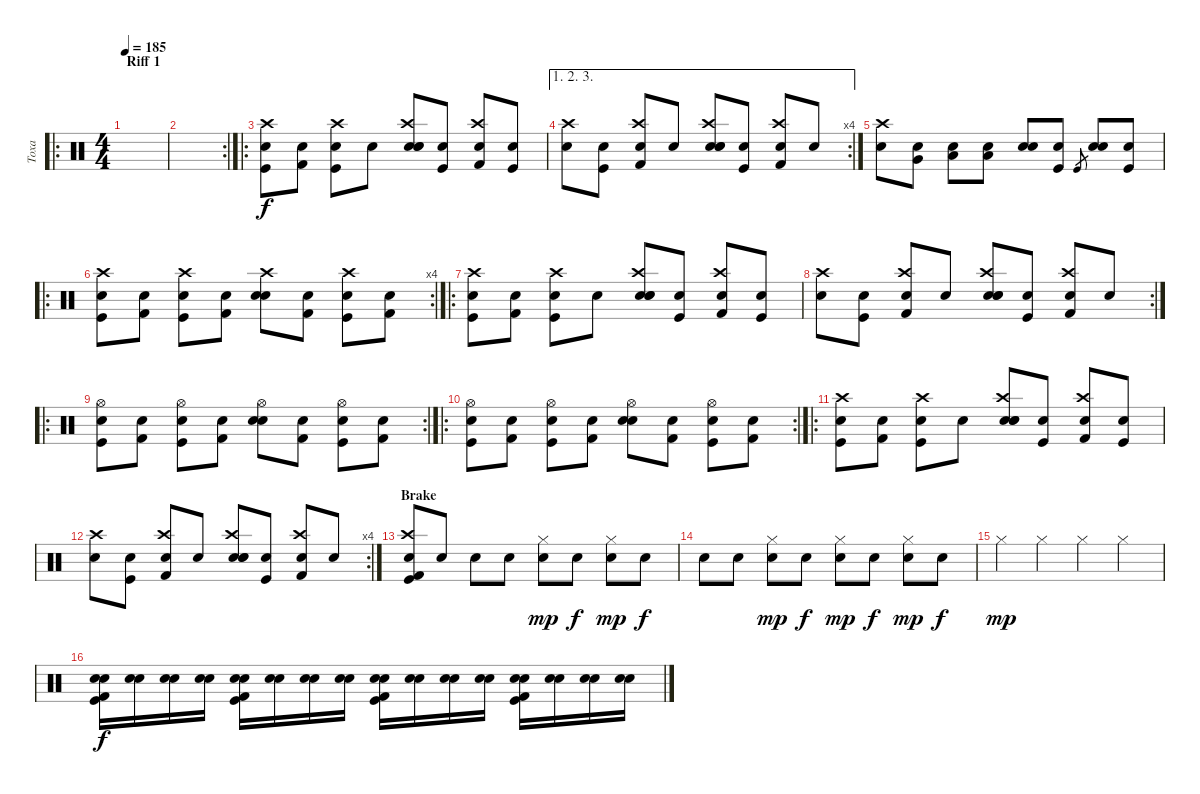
\track ("Toxa" "Toxa") {instrument percussion}
\staff {score}
\articulation defaults
\ro
\ts (4 4)
\section ("" "Riff 1")
\tempo 185
\clef neutral
\ks c
|
\rc 2
|
\ro
("Snare (hit)"{x} "Kick (hit)" "Crash high (hit)").8 ("Snare (hit)"{x} "Kick (hit) 2").8 ("Snare (hit)"{x} "Crash high (hit)" "Kick (hit)").8 "Snare (hit)"{x}.8 ("Snare (hit)"{x} "Crash high (hit)" "Snare (hit) 2" "Electric Snare (hit)").8 ("Snare (hit)"{x} "Kick (hit)").8 ("Snare (hit)"{x} "Crash high (hit)" "Kick (hit) 2").8 ("Snare (hit)"{x} "Kick (hit)").8 |
\ae (1 2 3)
\rc 4
("Snare (hit)"{x} "Crash high (hit)").8 ("Snare (hit)"{x} "Kick (hit)").8 ("Snare (hit)"{x} "Crash high (hit)" "Kick (hit) 2").8 "Snare (hit)"{x}.8 ("Snare (hit)"{x} "Crash high (hit)" "Electric Snare (hit)" "Snare (hit) 2").8 ("Snare (hit)"{x} "Kick (hit)").8 ("Snare (hit)"{x} "Crash high (hit)" "Kick (hit) 2").8 "Snare (hit)"{x}.8 |
("Snare (hit)"{x} "Crash high (hit)").8 ("Snare (hit)"{x} "Very Low Tom (hit)").8 ("Snare (hit)"{x} "Low Floor Tom (hit)").8 ("Snare (hit)"{x} "Low Floor Tom (hit)").8 ("Snare (hit)"{x} "Snare (hit) 2").8 ("Snare (hit)"{x} "Kick (hit)").8 "Kick (hit)".8{gr} ("Snare (hit)"{x} "Snare (hit) 2").8 ("Snare (hit)"{x} "Kick (hit)").8 |
\ro
\rc 4
("Snare (hit)"{x} "Kick (hit)" "Crash high (hit)").8 ("Snare (hit)"{x} "Kick (hit) 2").8 ("Snare (hit)"{x} "Kick (hit)" "Crash high (hit)").8 ("Snare (hit)"{x} "Kick (hit) 2").8 ("Snare (hit)"{x} "Snare (hit) 2" "Crash high (hit)").8 ("Snare (hit)"{x} "Kick (hit) 2").8 ("Snare (hit)"{x} "Kick (hit)" "Crash high (hit)").8 ("Snare (hit)"{x} "Kick (hit) 2").8 |
\ro
("Snare (hit)"{x} "Kick (hit)" "Crash high (hit)").8 ("Snare (hit)"{x} "Kick (hit) 2").8 ("Snare (hit)"{x} "Crash high (hit)" "Kick (hit)").8 "Snare (hit)"{x}.8 ("Snare (hit)"{x} "Crash high (hit)" "Snare (hit) 2" "Electric Snare (hit)").8 ("Snare (hit)"{x} "Kick (hit)").8 ("Snare (hit)"{x} "Crash high (hit)" "Kick (hit) 2").8 ("Snare (hit)"{x} "Kick (hit)").8 |
\rc 2
("Snare (hit)"{x} "Crash high (hit)").8 ("Snare (hit)"{x} "Kick (hit)").8 ("Snare (hit)"{x} "Crash high (hit)" "Kick (hit) 2").8 "Snare (hit)"{x}.8 ("Snare (hit)"{x} "Crash high (hit)" "Electric Snare (hit)" "Snare (hit) 2").8 ("Snare (hit)"{x} "Kick (hit)").8 ("Snare (hit)"{x} "Crash high (hit)" "Kick (hit) 2").8 "Snare (hit)"{x}.8 |
\ro
\rc 2
("Snare (hit)"{x} "Kick (hit)" "Hi-Hat (open)").8 ("Snare (hit)"{x} "Kick (hit) 2").8 ("Snare (hit)"{x} "Kick (hit)" "Hi-Hat (open)").8 ("Snare (hit)"{x} "Kick (hit) 2").8 ("Snare (hit)"{x} "Snare (hit) 2" "Hi-Hat (open)").8 ("Snare (hit)"{x} "Kick (hit) 2").8 ("Snare (hit)"{x} "Kick (hit)" "Hi-Hat (open)").8 ("Snare (hit)"{x} "Kick (hit) 2").8 |
\ro
\rc 2
("Snare (hit)"{x} "Kick (hit)" "Hi-Hat (open)").8 ("Snare (hit)"{x} "Kick (hit) 2").8 ("Snare (hit)"{x} "Kick (hit)" "Hi-Hat (open)").8 ("Snare (hit)"{x} "Kick (hit) 2").8 ("Snare (hit)"{x} "Snare (hit) 2" "Hi-Hat (open)").8 ("Snare (hit)"{x} "Kick (hit) 2").8 ("Snare (hit)"{x} "Kick (hit)" "Hi-Hat (open)").8 ("Snare (hit)"{x} "Kick (hit) 2").8 |
\ro
("Snare (hit)"{x} "Kick (hit)" "Crash high (hit)").8 ("Snare (hit)"{x} "Kick (hit) 2").8 ("Snare (hit)"{x} "Crash high (hit)" "Kick (hit)").8 "Snare (hit)"{x}.8 ("Snare (hit)"{x} "Crash high (hit)" "Snare (hit) 2" "Electric Snare (hit)").8 ("Snare (hit)"{x} "Kick (hit)").8 ("Snare (hit)"{x} "Crash high (hit)" "Kick (hit) 2").8 ("Snare (hit)"{x} "Kick (hit)").8 |
\rc 4
("Snare (hit)"{x} "Crash high (hit)").8 ("Snare (hit)"{x} "Kick (hit)").8 ("Snare (hit)"{x} "Crash high (hit)" "Kick (hit) 2").8 "Snare (hit)"{x}.8 ("Snare (hit)"{x} "Crash high (hit)" "Electric Snare (hit)" "Snare (hit) 2").8 ("Snare (hit)"{x} "Kick (hit)").8 ("Snare (hit)"{x} "Crash high (hit)" "Kick (hit) 2").8 "Snare (hit)"{x}.8 |
\section ("" "Brake")
("Kick (hit)" "Kick (hit) 2" "Crash high (hit)" "Snare (hit)"{x}).8 "Snare (hit)"{x}.8 "Snare (hit)"{x}.8 "Snare (hit)"{x}.8 ("Hi-Hat (closed)" "Snare (hit)"{x}).8{dy mp} "Snare (hit)"{x}.8{dy f} ("Hi-Hat (closed)" "Snare (hit)"{x}).8{dy mp} "Snare (hit)"{x}.8{dy f} |
"Snare (hit)"{x}.8 "Snare (hit)"{x}.8 ("Hi-Hat (closed)" "Snare (hit)"{x}).8{dy mp} "Snare (hit)"{x}.8{dy f} ("Hi-Hat (closed)" "Snare (hit)"{x}).8{dy mp} "Snare (hit)"{x}.8{dy f} ("Hi-Hat (closed)" "Snare (hit)"{x}).8{dy mp} "Snare (hit)"{x}.8{dy f} |
"Hi-Hat (closed)".4{dy mp} "Hi-Hat (closed)".4 "Hi-Hat (closed)".4 "Hi-Hat (closed)".4 |
("Kick (hit) 2" "Kick (hit)" "Electric Snare (hit)" "Snare (hit)"{x}).16{dy f} ("Electric Snare (hit)" "Snare (hit)"{x}).16 ("Electric Snare (hit)" "Snare (hit)"{x}).16 ("Electric Snare (hit)" "Snare (hit)"{x}).16 ("Kick (hit) 2" "Kick (hit)" "Electric Snare (hit)" "Snare (hit)"{x}).16 ("Electric Snare (hit)" "Snare (hit)"{x}).16 ("Electric Snare (hit)" "Snare (hit)"{x}).16 ("Electric Snare (hit)" "Snare (hit)"{x}).16 ("Kick (hit) 2" "Kick (hit)" "Electric Snare (hit)" "Snare (hit)"{x}).16 ("Electric Snare (hit)" "Snare (hit)"{x}).16 ("Electric Snare (hit)" "Snare (hit)"{x}).16 ("Electric Snare (hit)" "Snare (hit)"{x}).16 ("Kick (hit) 2" "Kick (hit)" "Electric Snare (hit)" "Snare (hit)"{x}).16 ("Electric Snare (hit)" "Snare (hit)"{x}).16 ("Electric Snare (hit)" "Snare (hit)"{x}).16 ("Electric Snare (hit)" "Snare (hit)"{x}).16
